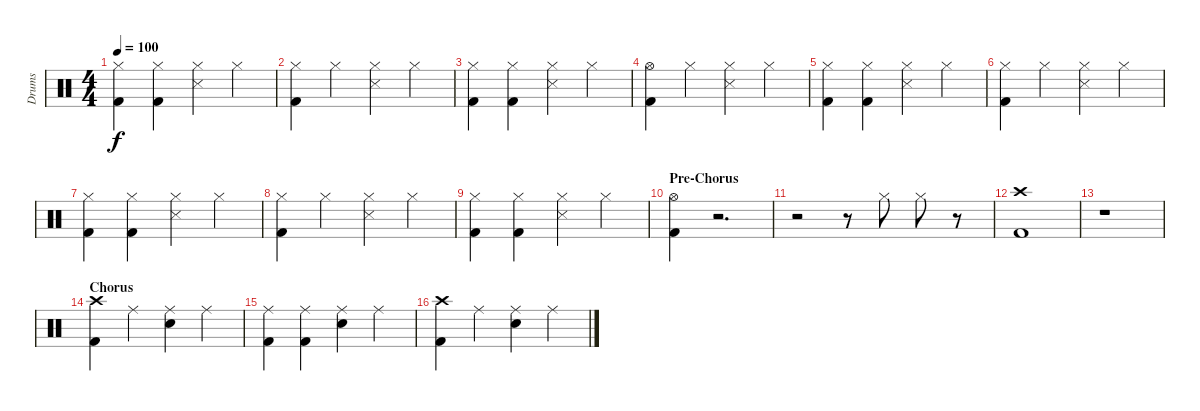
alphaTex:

\track ("Drums" "Drums") {instrument percussion}
\staff {score}
\articulation defaults
\ts (4 4)
\tempo 100
\clef neutral
\ks c
("Hi-Hat (closed)" "Kick (hit) 2").4{dy f} ("Hi-Hat (closed)" "Kick (hit) 2").4 ("Hi-Hat (closed)" "Snare (side stick) 3").4 "Hi-Hat (closed)".4 |
("Hi-Hat (closed)" "Kick (hit) 2").4 "Hi-Hat (closed)".4 ("Hi-Hat (closed)" "Snare (side stick) 3").4 "Hi-Hat (closed)".4 |
("Hi-Hat (closed)" "Kick (hit) 2").4 ("Hi-Hat (closed)" "Kick (hit) 2").4 ("Hi-Hat (closed)" "Snare (side stick) 3").4 "Hi-Hat (closed)".4 |
("Hi-Hat (open)" "Kick (hit) 2").4 "Hi-Hat (closed)".4 ("Hi-Hat (closed)" "Snare (side stick) 3").4 "Hi-Hat (closed)".4 |
("Hi-Hat (closed)" "Kick (hit) 2").4 ("Hi-Hat (closed)" "Kick (hit) 2").4 ("Hi-Hat (closed)" "Snare (side stick) 3").4 "Hi-Hat (closed)".4 |
("Hi-Hat (closed)" "Kick (hit) 2").4 "Hi-Hat (closed)".4 ("Hi-Hat (closed)" "Snare (side stick) 3").4 "Hi-Hat (closed)".4 |
("Hi-Hat (closed)" "Kick (hit) 2").4 ("Hi-Hat (closed)" "Kick (hit) 2").4 ("Hi-Hat (closed)" "Snare (side stick) 3").4 "Hi-Hat (closed)".4 |
("Hi-Hat (closed)" "Kick (hit) 2").4 "Hi-Hat (closed)".4 ("Hi-Hat (closed)" "Snare (side stick) 3").4 "Hi-Hat (closed)".4 |
("Hi-Hat (closed)" "Kick (hit) 2").4 ("Hi-Hat (closed)" "Kick (hit) 2").4 ("Hi-Hat (closed)" "Snare (side stick) 3").4 "Hi-Hat (closed)".4 |
\section ("" "Pre-Chorus")
("Hi-Hat (open)" "Kick (hit) 2").4 r.2{d} |
r.2 r.8 "Hi-Hat (closed)".8 "Hi-Hat (closed)".8 r.8 |
("Crash high (hit)" "Kick (hit) 2").1 |
r.1 |
\section ("" "Chorus")
("Crash high (hit)" "Kick (hit) 2").4 "Ride (middle)".4 ("Ride (middle)" "Snare (hit) 2").4 "Ride (middle)".4 |
("Ride (middle)" "Kick (hit) 2").4 ("Ride (middle)" "Kick (hit) 2").4 ("Ride (middle)" "Snare (hit) 2").4 "Ride (middle)".4 |
("Crash high (hit)" "Kick (hit) 2").4 "Ride (middle)".4 ("Ride (middle)" "Snare (hit) 2").4 "Ride (middle)".4
